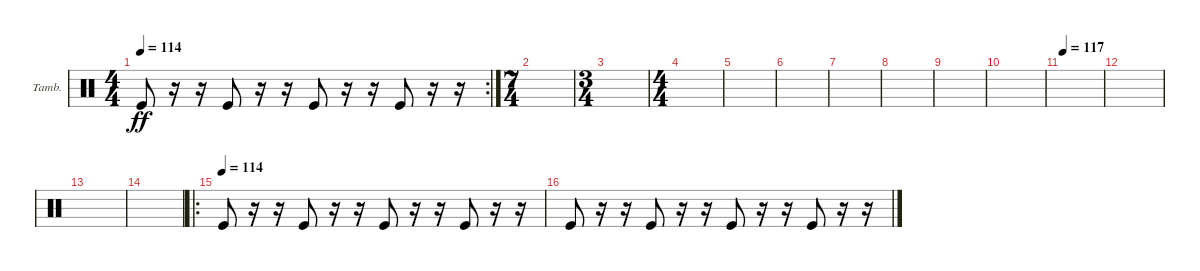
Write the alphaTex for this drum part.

\defaultSystemsLayout 4
\bracketExtendMode groupsimilarinstruments
\firstSystemTrackNameOrientation horizontal
\otherSystemsTrackNameOrientation horizontal
\track ("Tambourine" "Tamb.") {instrument percussion}
\staff {score}
\articulation defaults
\rc 2
\ts (4 4)
\tempo 114
\clef neutral
\scale
0.283784
\ks c "Kick (hit)".8{dy ff}
r.16 r.16 "Kick (hit)".8 r.16 r.16 "Kick (hit)".8 r.16 r.16 "Kick (hit)".8 r.16 r.16 |
\ts (7 4)
\scale
0.459459 |
\ts (3 4)
|
\ts (4 4)
\scale
0.472222 |
\scale
0.263889 |
\scale
0.263889 |
\scale
0.333333 |
\scale
0.333333 |
\scale
0.333333 |
\scale
0.333333 |
\tempo 117
\scale
0.333333 |
\scale
0.333333 |
|
|
\ro
\tempo (114)
"Kick (hit)".8 r.16 r.16 "Kick (hit)".8 r.16 r.16 "Kick (hit)".8 r.16 r.16 "Kick (hit)".8 r.16 r.16 |
"Kick (hit)".8 r.16 r.16 "Kick (hit)".8 r.16 r.16 "Kick (hit)".8 r.16 r.16 "Kick (hit)".8 r.16 r.16
